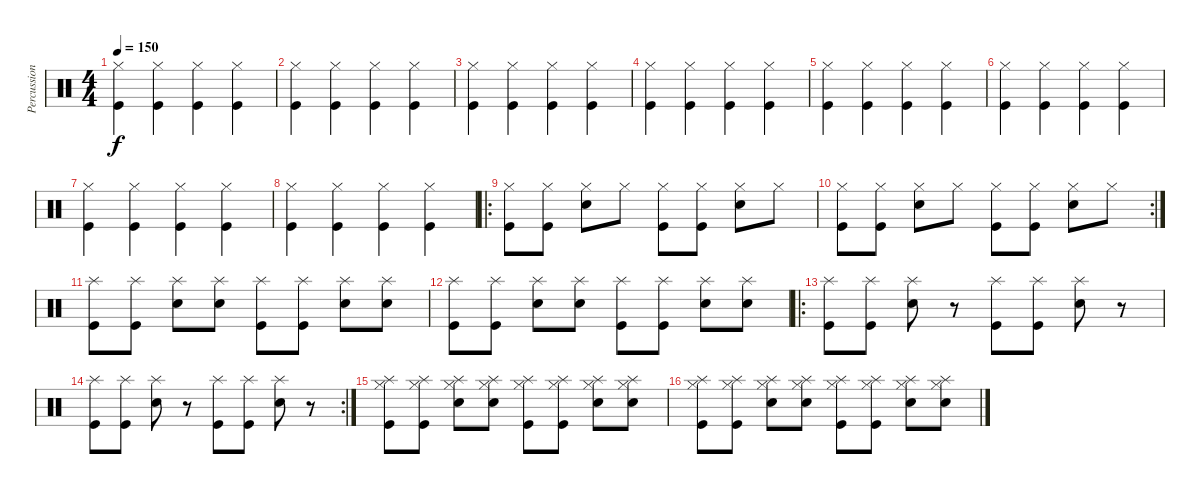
\track ("Percussion" "Percussion") {instrument percussion}
\staff {score}
\articulation defaults
\ts (4 4)
\tempo 150
\clef neutral
\ks c
("Hi-Hat (closed)" "Kick (hit)").4{dy f} ("Hi-Hat (closed)" "Kick (hit)").4 ("Hi-Hat (closed)" "Kick (hit)").4 ("Hi-Hat (closed)" "Kick (hit)").4 |
("Hi-Hat (closed)" "Kick (hit)").4 ("Hi-Hat (closed)" "Kick (hit)").4 ("Hi-Hat (closed)" "Kick (hit)").4 ("Hi-Hat (closed)" "Kick (hit)").4 |
("Hi-Hat (closed)" "Kick (hit)").4 ("Hi-Hat (closed)" "Kick (hit)").4 ("Hi-Hat (closed)" "Kick (hit)").4 ("Hi-Hat (closed)" "Kick (hit)").4 |
("Hi-Hat (closed)" "Kick (hit)").4 ("Hi-Hat (closed)" "Kick (hit)").4 ("Hi-Hat (closed)" "Kick (hit)").4 ("Hi-Hat (closed)" "Kick (hit)").4 |
("Hi-Hat (closed)" "Kick (hit)").4 ("Hi-Hat (closed)" "Kick (hit)").4 ("Hi-Hat (closed)" "Kick (hit)").4 ("Hi-Hat (closed)" "Kick (hit)").4 |
("Hi-Hat (closed)" "Kick (hit)").4 ("Hi-Hat (closed)" "Kick (hit)").4 ("Hi-Hat (closed)" "Kick (hit)").4 ("Hi-Hat (closed)" "Kick (hit)").4 |
("Hi-Hat (closed)" "Kick (hit)").4 ("Hi-Hat (closed)" "Kick (hit)").4 ("Hi-Hat (closed)" "Kick (hit)").4 ("Hi-Hat (closed)" "Kick (hit)").4 |
("Hi-Hat (closed)" "Kick (hit)").4 ("Hi-Hat (closed)" "Kick (hit)").4 ("Hi-Hat (closed)" "Kick (hit)").4 ("Hi-Hat (closed)" "Kick (hit)").4 |
\ro
("Hi-Hat (closed)" "Kick (hit)").8 ("Hi-Hat (closed)" "Kick (hit)").8 ("Hi-Hat (closed)" "Electric Snare (hit)").8 "Hi-Hat (closed)".8 ("Hi-Hat (closed)" "Kick (hit)").8 ("Hi-Hat (closed)" "Kick (hit)").8 ("Hi-Hat (closed)" "Electric Snare (hit)").8 "Hi-Hat (closed)".8 |
\rc 2
("Hi-Hat (closed)" "Kick (hit)").8 ("Hi-Hat (closed)" "Kick (hit)").8 ("Hi-Hat (closed)" "Electric Snare (hit)").8 "Hi-Hat (closed)".8 ("Hi-Hat (closed)" "Kick (hit)").8 ("Hi-Hat (closed)" "Kick (hit)").8 ("Hi-Hat (closed)" "Electric Snare (hit)").8 "Hi-Hat (closed)".8 |
("Splash (hit)" "Kick (hit)").8 ("Splash (hit)" "Kick (hit)").8 ("Splash (hit)" "Electric Snare (hit)").8 ("Splash (hit)" "Electric Snare (hit)").8 ("Splash (hit)" "Kick (hit)").8 ("Splash (hit)" "Kick (hit)").8 ("Splash (hit)" "Electric Snare (hit)").8 ("Splash (hit)" "Electric Snare (hit)").8 |
("Splash (hit)" "Kick (hit)").8 ("Splash (hit)" "Kick (hit)").8 ("Splash (hit)" "Electric Snare (hit)").8 ("Splash (hit)" "Electric Snare (hit)").8 ("Splash (hit)" "Kick (hit)").8 ("Splash (hit)" "Kick (hit)").8 ("Splash (hit)" "Electric Snare (hit)").8 ("Splash (hit)" "Electric Snare (hit)").8 |
\ro
("Splash (hit)" "Kick (hit)").8 ("Splash (hit)" "Kick (hit)").8 ("Splash (hit)" "Electric Snare (hit)").8 r.8 ("Splash (hit)" "Kick (hit)").8 ("Splash (hit)" "Kick (hit)").8 ("Splash (hit)" "Electric Snare (hit)").8 r.8 |
\rc 2
("Splash (hit)" "Kick (hit)").8 ("Splash (hit)" "Kick (hit)").8 ("Splash (hit)" "Electric Snare (hit)").8 r.8 ("Splash (hit)" "Kick (hit)").8 ("Splash (hit)" "Kick (hit)").8 ("Splash (hit)" "Electric Snare (hit)").8 r.8 |
("Splash (hit)" "Kick (hit)" "Hi-Hat (closed)").8 ("Splash (hit)" "Kick (hit)" "Hi-Hat (closed)").8 ("Splash (hit)" "Electric Snare (hit)" "Hi-Hat (closed)").8 ("Splash (hit)" "Electric Snare (hit)" "Hi-Hat (closed)").8 ("Splash (hit)" "Kick (hit)" "Hi-Hat (closed)").8 ("Splash (hit)" "Kick (hit)" "Hi-Hat (closed)").8 ("Splash (hit)" "Electric Snare (hit)" "Hi-Hat (closed)").8 ("Splash (hit)" "Electric Snare (hit)" "Hi-Hat (closed)").8 |
("Splash (hit)" "Kick (hit)" "Hi-Hat (closed)").8 ("Splash (hit)" "Kick (hit)" "Hi-Hat (closed)").8 ("Splash (hit)" "Electric Snare (hit)" "Hi-Hat (closed)").8 ("Splash (hit)" "Electric Snare (hit)" "Hi-Hat (closed)").8 ("Splash (hit)" "Kick (hit)" "Hi-Hat (closed)").8 ("Splash (hit)" "Kick (hit)" "Hi-Hat (closed)").8 ("Splash (hit)" "Electric Snare (hit)" "Hi-Hat (closed)").8 ("Splash (hit)" "Electric Snare (hit)" "Hi-Hat (closed)").8
